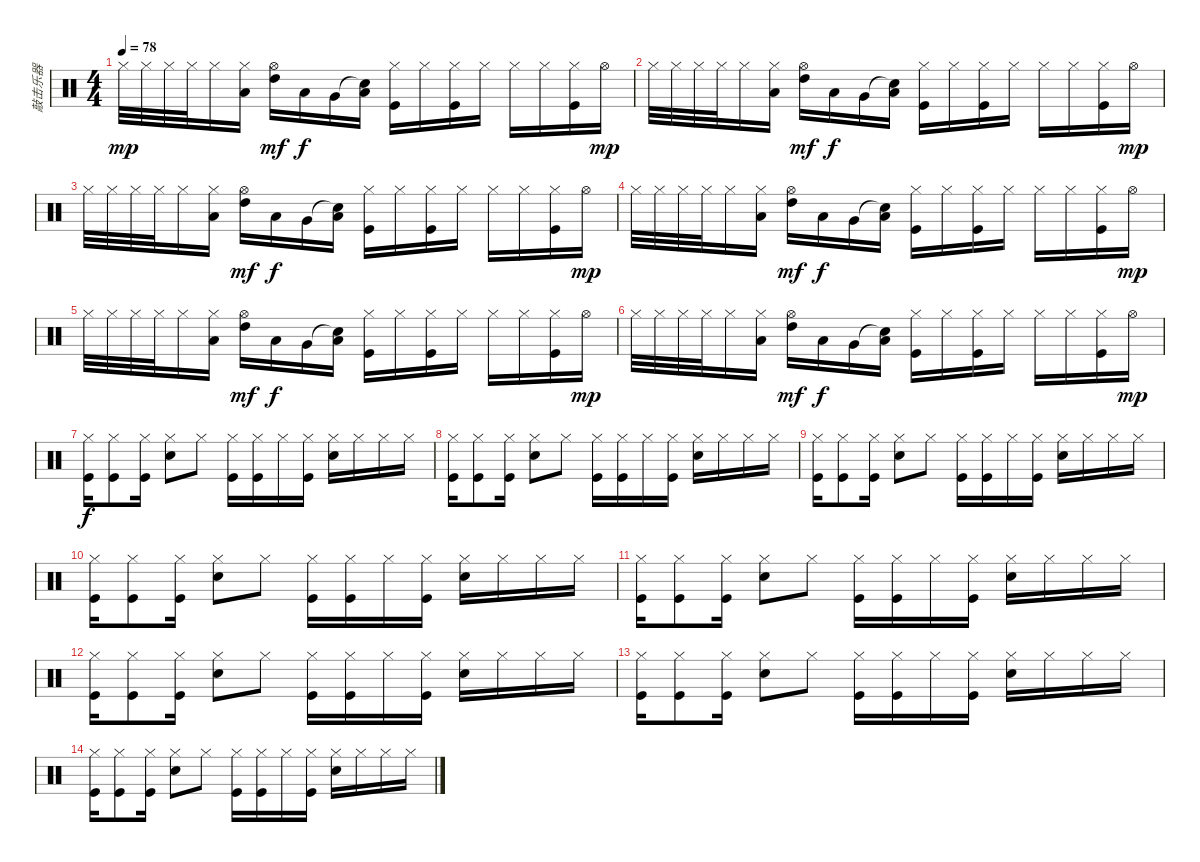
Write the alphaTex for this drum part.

\track ("敲击乐器" "敲击乐器") {instrument percussion}
\staff {score}
\articulation defaults
\ts (4 4)
\tempo 78
\clef neutral
\ks c "Hi-Hat (closed)".32{dy mp} "Hi-Hat (closed)".32 "Hi-Hat (closed)".32 "Hi-Hat (closed)".32 "Hi-Hat (closed)".16
("Hi-Hat (closed)" "Low Tom (hit)").16 ("Hi-Hat (open)" "High Tom (hit)").16{dy mf} "Low Tom (hit)".16{dy f} "Very Low Tom (hit)".16 ("Snare (hit)"{t} "Low Floor Tom (hit)").16 ("Hi-Hat (closed)" "Kick (hit)").16 "Hi-Hat (closed)".16 ("Hi-Hat (closed)" "Kick (hit)").16 "Hi-Hat (closed)".16 "Hi-Hat (closed)".16 "Hi-Hat (closed)".16 ("Kick (hit)" "Hi-Hat (closed)").16 "Hi-Hat (open)".16{dy mp} |
"Hi-Hat (closed)".32 "Hi-Hat (closed)".32 "Hi-Hat (closed)".32 "Hi-Hat (closed)".32 "Hi-Hat (closed)".16 ("Hi-Hat (closed)" "Low Tom (hit)").16 ("Hi-Hat (open)" "High Tom (hit)").16{dy mf} "Low Tom (hit)".16{dy f} "Very Low Tom (hit)".16 ("Snare (hit)"{t} "Low Floor Tom (hit)").16 ("Hi-Hat (closed)" "Kick (hit)").16 "Hi-Hat (closed)".16 ("Hi-Hat (closed)" "Kick (hit)").16 "Hi-Hat (closed)".16 "Hi-Hat (closed)".16 "Hi-Hat (closed)".16 ("Kick (hit)" "Hi-Hat (closed)").16 "Hi-Hat (open)".16{dy mp} |
"Hi-Hat (closed)".32 "Hi-Hat (closed)".32 "Hi-Hat (closed)".32 "Hi-Hat (closed)".32 "Hi-Hat (closed)".16 ("Hi-Hat (closed)" "Low Tom (hit)").16 ("Hi-Hat (open)" "High Tom (hit)").16{dy mf} "Low Tom (hit)".16{dy f} "Very Low Tom (hit)".16 ("Snare (hit)"{t} "Low Floor Tom (hit)").16 ("Hi-Hat (closed)" "Kick (hit)").16 "Hi-Hat (closed)".16 ("Hi-Hat (closed)" "Kick (hit)").16 "Hi-Hat (closed)".16 "Hi-Hat (closed)".16 "Hi-Hat (closed)".16 ("Kick (hit)" "Hi-Hat (closed)").16 "Hi-Hat (open)".16{dy mp} |
"Hi-Hat (closed)".32 "Hi-Hat (closed)".32 "Hi-Hat (closed)".32 "Hi-Hat (closed)".32 "Hi-Hat (closed)".16 ("Hi-Hat (closed)" "Low Tom (hit)").16 ("Hi-Hat (open)" "High Tom (hit)").16{dy mf} "Low Tom (hit)".16{dy f} "Very Low Tom (hit)".16 ("Snare (hit)"{t} "Low Floor Tom (hit)").16 ("Hi-Hat (closed)" "Kick (hit)").16 "Hi-Hat (closed)".16 ("Hi-Hat (closed)" "Kick (hit)").16 "Hi-Hat (closed)".16 "Hi-Hat (closed)".16 "Hi-Hat (closed)".16 ("Kick (hit)" "Hi-Hat (closed)").16 "Hi-Hat (open)".16{dy mp} |
"Hi-Hat (closed)".32 "Hi-Hat (closed)".32 "Hi-Hat (closed)".32 "Hi-Hat (closed)".32 "Hi-Hat (closed)".16 ("Hi-Hat (closed)" "Low Tom (hit)").16 ("Hi-Hat (open)" "High Tom (hit)").16{dy mf} "Low Tom (hit)".16{dy f} "Very Low Tom (hit)".16 ("Snare (hit)"{t} "Low Floor Tom (hit)").16 ("Hi-Hat (closed)" "Kick (hit)").16 "Hi-Hat (closed)".16 ("Hi-Hat (closed)" "Kick (hit)").16 "Hi-Hat (closed)".16 "Hi-Hat (closed)".16 "Hi-Hat (closed)".16 ("Kick (hit)" "Hi-Hat (closed)").16 "Hi-Hat (open)".16{dy mp} |
"Hi-Hat (closed)".32 "Hi-Hat (closed)".32 "Hi-Hat (closed)".32 "Hi-Hat (closed)".32 "Hi-Hat (closed)".16 ("Hi-Hat (closed)" "Low Tom (hit)").16 ("Hi-Hat (open)" "High Tom (hit)").16{dy mf} "Low Tom (hit)".16{dy f} "Very Low Tom (hit)".16 ("Snare (hit)"{t} "Low Floor Tom (hit)").16 ("Hi-Hat (closed)" "Kick (hit)").16 "Hi-Hat (closed)".16 ("Hi-Hat (closed)" "Kick (hit)").16 "Hi-Hat (closed)".16 "Hi-Hat (closed)".16 "Hi-Hat (closed)".16 ("Kick (hit)" "Hi-Hat (closed)").16 "Hi-Hat (open)".16{dy mp} |
("Hi-Hat (closed)" "Kick (hit)").16{dy f} ("Hi-Hat (closed)" "Kick (hit)").8 ("Hi-Hat (closed)" "Kick (hit)").16 ("Hi-Hat (closed)" "Snare (hit) 2").8 "Hi-Hat (closed)".8 ("Hi-Hat (closed)" "Kick (hit)").16 ("Hi-Hat (closed)" "Kick (hit)").16 "Hi-Hat (closed)".16 ("Hi-Hat (closed)" "Kick (hit)").16 ("Hi-Hat (closed)" "Snare (hit) 2").16 "Hi-Hat (closed)".16 "Hi-Hat (closed)".16 "Hi-Hat (closed)".16 |
("Hi-Hat (closed)" "Kick (hit)").16 ("Hi-Hat (closed)" "Kick (hit)").8 ("Hi-Hat (closed)" "Kick (hit)").16 ("Hi-Hat (closed)" "Snare (hit) 2").8 "Hi-Hat (closed)".8 ("Hi-Hat (closed)" "Kick (hit)").16 ("Hi-Hat (closed)" "Kick (hit)").16 "Hi-Hat (closed)".16 ("Hi-Hat (closed)" "Kick (hit)").16 ("Hi-Hat (closed)" "Snare (hit) 2").16 "Hi-Hat (closed)".16 "Hi-Hat (closed)".16 "Hi-Hat (closed)".16 |
("Hi-Hat (closed)" "Kick (hit)").16 ("Hi-Hat (closed)" "Kick (hit)").8 ("Hi-Hat (closed)" "Kick (hit)").16 ("Hi-Hat (closed)" "Snare (hit) 2").8 "Hi-Hat (closed)".8 ("Hi-Hat (closed)" "Kick (hit)").16 ("Hi-Hat (closed)" "Kick (hit)").16 "Hi-Hat (closed)".16 ("Hi-Hat (closed)" "Kick (hit)").16 ("Hi-Hat (closed)" "Snare (hit) 2").16 "Hi-Hat (closed)".16 "Hi-Hat (closed)".16 "Hi-Hat (closed)".16 |
("Hi-Hat (closed)" "Kick (hit)").16 ("Hi-Hat (closed)" "Kick (hit)").8 ("Hi-Hat (closed)" "Kick (hit)").16 ("Hi-Hat (closed)" "Snare (hit) 2").8 "Hi-Hat (closed)".8 ("Hi-Hat (closed)" "Kick (hit)").16 ("Hi-Hat (closed)" "Kick (hit)").16 "Hi-Hat (closed)".16 ("Hi-Hat (closed)" "Kick (hit)").16 ("Hi-Hat (closed)" "Snare (hit) 2").16 "Hi-Hat (closed)".16 "Hi-Hat (closed)".16 "Hi-Hat (closed)".16 |
("Hi-Hat (closed)" "Kick (hit)").16 ("Hi-Hat (closed)" "Kick (hit)").8 ("Hi-Hat (closed)" "Kick (hit)").16 ("Hi-Hat (closed)" "Snare (hit) 2").8 "Hi-Hat (closed)".8 ("Hi-Hat (closed)" "Kick (hit)").16 ("Hi-Hat (closed)" "Kick (hit)").16 "Hi-Hat (closed)".16 ("Hi-Hat (closed)" "Kick (hit)").16 ("Hi-Hat (closed)" "Snare (hit) 2").16 "Hi-Hat (closed)".16 "Hi-Hat (closed)".16 "Hi-Hat (closed)".16 |
("Hi-Hat (closed)" "Kick (hit)").16 ("Hi-Hat (closed)" "Kick (hit)").8 ("Hi-Hat (closed)" "Kick (hit)").16 ("Hi-Hat (closed)" "Snare (hit) 2").8 "Hi-Hat (closed)".8 ("Hi-Hat (closed)" "Kick (hit)").16 ("Hi-Hat (closed)" "Kick (hit)").16 "Hi-Hat (closed)".16 ("Hi-Hat (closed)" "Kick (hit)").16 ("Hi-Hat (closed)" "Snare (hit) 2").16 "Hi-Hat (closed)".16 "Hi-Hat (closed)".16 "Hi-Hat (closed)".16 |
("Hi-Hat (closed)" "Kick (hit)").16{volume 0} ("Hi-Hat (closed)" "Kick (hit)").8 ("Hi-Hat (closed)" "Kick (hit)").16 ("Hi-Hat (closed)" "Snare (hit) 2").8 "Hi-Hat (closed)".8 ("Hi-Hat (closed)" "Kick (hit)").16 ("Hi-Hat (closed)" "Kick (hit)").16 "Hi-Hat (closed)".16 ("Hi-Hat (closed)" "Kick (hit)").16 ("Hi-Hat (closed)" "Snare (hit) 2").16 "Hi-Hat (closed)".16 "Hi-Hat (closed)".16 "Hi-Hat (closed)".16 |
("Hi-Hat (closed)" "Kick (hit)").16 ("Hi-Hat (closed)" "Kick (hit)").8 ("Hi-Hat (closed)" "Kick (hit)").16 ("Hi-Hat (closed)" "Snare (hit) 2").8 "Hi-Hat (closed)".8 ("Hi-Hat (closed)" "Kick (hit)").16 ("Hi-Hat (closed)" "Kick (hit)").16 "Hi-Hat (closed)".16 ("Hi-Hat (closed)" "Kick (hit)").16 ("Hi-Hat (closed)" "Snare (hit) 2").16 "Hi-Hat (closed)".16 "Hi-Hat (closed)".16 "Hi-Hat (closed)".16
